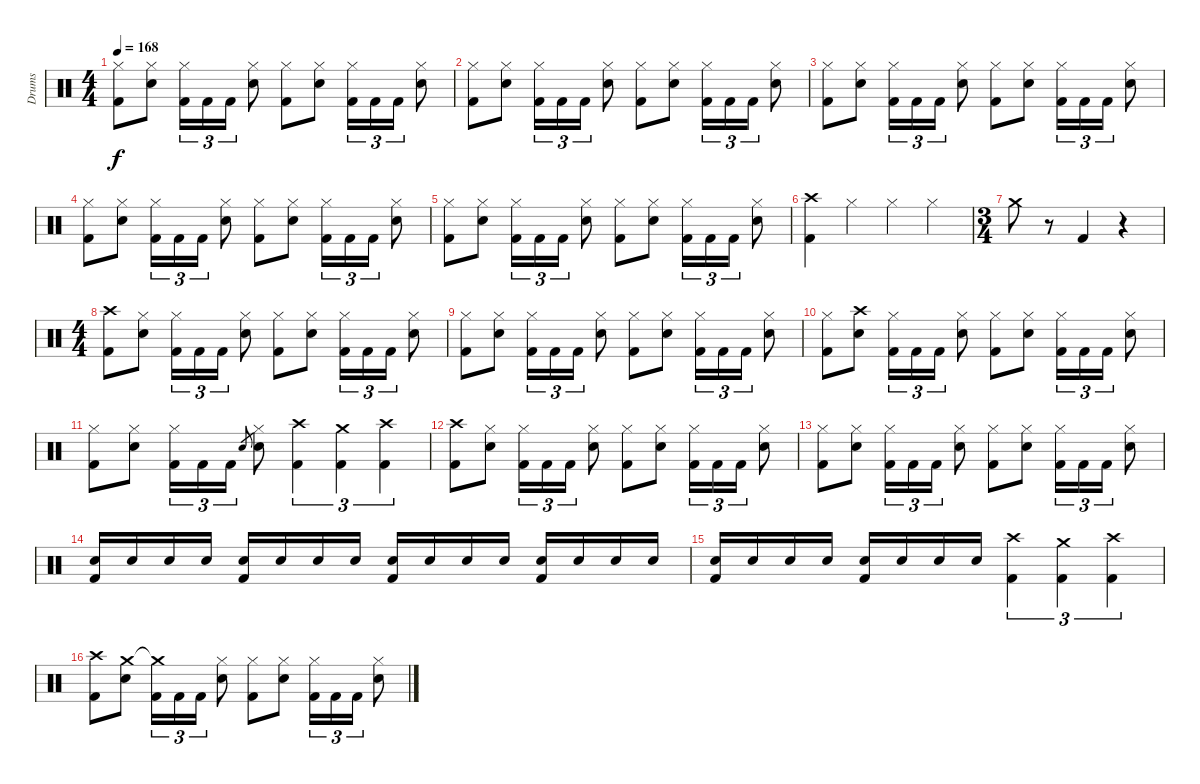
\track ("Drums" "Drums") {instrument percussion}
\staff {score}
\articulation defaults
\ts (4 4)
\tempo 168
\clef neutral
\ks c
("Hi-Hat (closed)" "Kick (hit) 2").8{dy f} ("Hi-Hat (closed)" "Snare (hit) 2").8 ("Hi-Hat (closed)" "Kick (hit) 2").16{tu (3 2)} "Kick (hit) 2".16{tu (3 2)} "Kick (hit) 2".16{tu (3 2)} ("Hi-Hat (closed)" "Snare (hit) 2").8 ("Hi-Hat (closed)" "Kick (hit) 2").8 ("Hi-Hat (closed)" "Snare (hit) 2").8 ("Hi-Hat (closed)" "Kick (hit) 2").16{tu (3 2)} "Kick (hit) 2".16{tu (3 2)} "Kick (hit) 2".16{tu (3 2)} ("Hi-Hat (closed)" "Snare (hit) 2").8 |
("Hi-Hat (closed)" "Kick (hit) 2").8 ("Hi-Hat (closed)" "Snare (hit) 2").8 ("Hi-Hat (closed)" "Kick (hit) 2").16{tu (3 2)} "Kick (hit) 2".16{tu (3 2)} "Kick (hit) 2".16{tu (3 2)} ("Hi-Hat (closed)" "Snare (hit) 2").8 ("Hi-Hat (closed)" "Kick (hit) 2").8 ("Hi-Hat (closed)" "Snare (hit) 2").8 ("Hi-Hat (closed)" "Kick (hit) 2").16{tu (3 2)} "Kick (hit) 2".16{tu (3 2)} "Kick (hit) 2".16{tu (3 2)} ("Hi-Hat (closed)" "Snare (hit) 2").8 |
("Hi-Hat (closed)" "Kick (hit) 2").8 ("Hi-Hat (closed)" "Snare (hit) 2").8 ("Hi-Hat (closed)" "Kick (hit) 2").16{tu (3 2)} "Kick (hit) 2".16{tu (3 2)} "Kick (hit) 2".16{tu (3 2)} ("Hi-Hat (closed)" "Snare (hit) 2").8 ("Hi-Hat (closed)" "Kick (hit) 2").8 ("Hi-Hat (closed)" "Snare (hit) 2").8 ("Hi-Hat (closed)" "Kick (hit) 2").16{tu (3 2)} "Kick (hit) 2".16{tu (3 2)} "Kick (hit) 2".16{tu (3 2)} ("Hi-Hat (closed)" "Snare (hit) 2").8 |
("Hi-Hat (closed)" "Kick (hit) 2").8 ("Hi-Hat (closed)" "Snare (hit) 2").8 ("Hi-Hat (closed)" "Kick (hit) 2").16{tu (3 2)} "Kick (hit) 2".16{tu (3 2)} "Kick (hit) 2".16{tu (3 2)} ("Hi-Hat (closed)" "Snare (hit) 2").8 ("Hi-Hat (closed)" "Kick (hit) 2").8 ("Hi-Hat (closed)" "Snare (hit) 2").8 ("Hi-Hat (closed)" "Kick (hit) 2").16{tu (3 2)} "Kick (hit) 2".16{tu (3 2)} "Kick (hit) 2".16{tu (3 2)} ("Hi-Hat (closed)" "Snare (hit) 2").8 |
("Hi-Hat (closed)" "Kick (hit) 2").8 ("Hi-Hat (closed)" "Snare (hit) 2").8 ("Hi-Hat (closed)" "Kick (hit) 2").16{tu (3 2)} "Kick (hit) 2".16{tu (3 2)} "Kick (hit) 2".16{tu (3 2)} ("Hi-Hat (closed)" "Snare (hit) 2").8 ("Hi-Hat (closed)" "Kick (hit) 2").8 ("Hi-Hat (closed)" "Snare (hit) 2").8 ("Hi-Hat (closed)" "Kick (hit) 2").16{tu (3 2)} "Kick (hit) 2".16{tu (3 2)} "Kick (hit) 2".16{tu (3 2)} ("Hi-Hat (closed)" "Snare (hit) 2").8 |
("Crash high (hit)" "Kick (hit) 2").4 "Hi-Hat (closed)".4 "Hi-Hat (closed)".4 "Hi-Hat (closed)".4 |
\ts (3 4)
"Crash medium (hit)".8 r.8 "Kick (hit) 2".4 r.4 |
\ts (4 4)
("Crash high (hit)" "Kick (hit) 2").8 ("Hi-Hat (closed)" "Snare (hit) 2").8 ("Hi-Hat (closed)" "Kick (hit) 2").16{tu (3 2)} "Kick (hit) 2".16{tu (3 2)} "Kick (hit) 2".16{tu (3 2)} ("Hi-Hat (closed)" "Snare (hit) 2").8 ("Hi-Hat (closed)" "Kick (hit) 2").8 ("Hi-Hat (closed)" "Snare (hit) 2").8 ("Hi-Hat (closed)" "Kick (hit) 2").16{tu (3 2)} "Kick (hit) 2".16{tu (3 2)} "Kick (hit) 2".16{tu (3 2)} ("Hi-Hat (closed)" "Snare (hit) 2").8 |
("Hi-Hat (closed)" "Kick (hit) 2").8 ("Hi-Hat (closed)" "Snare (hit) 2").8 ("Hi-Hat (closed)" "Kick (hit) 2").16{tu (3 2)} "Kick (hit) 2".16{tu (3 2)} "Kick (hit) 2".16{tu (3 2)} ("Hi-Hat (closed)" "Snare (hit) 2").8 ("Hi-Hat (closed)" "Kick (hit) 2").8 ("Hi-Hat (closed)" "Snare (hit) 2").8 ("Hi-Hat (closed)" "Kick (hit) 2").16{tu (3 2)} "Kick (hit) 2".16{tu (3 2)} "Kick (hit) 2".16{tu (3 2)} ("Hi-Hat (closed)" "Snare (hit) 2").8 |
("Hi-Hat (closed)" "Kick (hit) 2").8 ("Crash high (hit)" "Snare (hit) 2").8 ("Hi-Hat (closed)" "Kick (hit) 2").16{tu (3 2)} "Kick (hit) 2".16{tu (3 2)} "Kick (hit) 2".16{tu (3 2)} ("Hi-Hat (closed)" "Snare (hit) 2").8 ("Hi-Hat (closed)" "Kick (hit) 2").8 ("Hi-Hat (closed)" "Snare (hit) 2").8 ("Hi-Hat (closed)" "Kick (hit) 2").16{tu (3 2)} "Kick (hit) 2".16{tu (3 2)} "Kick (hit) 2".16{tu (3 2)} ("Hi-Hat (closed)" "Snare (hit) 2").8 |
("Hi-Hat (closed)" "Kick (hit) 2").8 ("Hi-Hat (closed)" "Snare (hit) 2").8 ("Hi-Hat (closed)" "Kick (hit) 2").16{tu (3 2)} "Kick (hit) 2".16{tu (3 2)} "Kick (hit) 2".16{tu (3 2)} "Snare (hit) 2".8{gr} ("Hi-Hat (closed)" "Snare (hit) 2").8 ("Crash high (hit)" "Kick (hit) 2").4{tu (3 2)} ("Crash medium (hit)" "Kick (hit) 2").4{tu (3 2)} ("Crash high (hit)" "Kick (hit) 2").4{tu (3 2)} |
("Crash high (hit)" "Kick (hit) 2").8 ("Hi-Hat (closed)" "Snare (hit) 2").8 ("Hi-Hat (closed)" "Kick (hit) 2").16{tu (3 2)} "Kick (hit) 2".16{tu (3 2)} "Kick (hit) 2".16{tu (3 2)} ("Hi-Hat (closed)" "Snare (hit) 2").8 ("Hi-Hat (closed)" "Kick (hit) 2").8 ("Hi-Hat (closed)" "Snare (hit) 2").8 ("Hi-Hat (closed)" "Kick (hit) 2").16{tu (3 2)} "Kick (hit) 2".16{tu (3 2)} "Kick (hit) 2".16{tu (3 2)} ("Hi-Hat (closed)" "Snare (hit) 2").8 |
("Hi-Hat (closed)" "Kick (hit) 2").8 ("Hi-Hat (closed)" "Snare (hit) 2").8 ("Hi-Hat (closed)" "Kick (hit) 2").16{tu (3 2)} "Kick (hit) 2".16{tu (3 2)} "Kick (hit) 2".16{tu (3 2)} ("Hi-Hat (closed)" "Snare (hit) 2").8 ("Hi-Hat (closed)" "Kick (hit) 2").8 ("Hi-Hat (closed)" "Snare (hit) 2").8 ("Hi-Hat (closed)" "Kick (hit) 2").16{tu (3 2)} "Kick (hit) 2".16{tu (3 2)} "Kick (hit) 2".16{tu (3 2)} ("Hi-Hat (closed)" "Snare (hit) 2").8 |
("Snare (hit) 2" "Kick (hit) 2").16 "Snare (hit) 2".16 "Snare (hit) 2".16 "Snare (hit) 2".16 ("Snare (hit) 2" "Kick (hit) 2").16 "Snare (hit) 2".16 "Snare (hit) 2".16 "Snare (hit) 2".16 ("Snare (hit) 2" "Kick (hit) 2").16 "Snare (hit) 2".16 "Snare (hit) 2".16 "Snare (hit) 2".16 ("Snare (hit) 2" "Kick (hit) 2").16 "Snare (hit) 2".16 "Snare (hit) 2".16 "Snare (hit) 2".16 |
("Snare (hit) 2" "Kick (hit) 2").16 "Snare (hit) 2".16 "Snare (hit) 2".16 "Snare (hit) 2".16 ("Snare (hit) 2" "Kick (hit) 2").16 "Snare (hit) 2".16 "Snare (hit) 2".16 "Snare (hit) 2".16 ("Crash high (hit)" "Kick (hit) 2").4{tu (3 2)} ("Crash medium (hit)" "Kick (hit) 2").4{tu (3 2)} ("Crash high (hit)" "Kick (hit) 2").4{tu (3 2)} |
("Crash high (hit)" "Kick (hit) 2").8 ("Crash medium (hit)" "Snare (hit) 2").8 ("Crash medium (hit)"{t} "Kick (hit) 2").16{tu (3 2)} "Kick (hit) 2".16{tu (3 2)} "Kick (hit) 2".16{tu (3 2)} ("Hi-Hat (closed)" "Snare (hit) 2").8 ("Hi-Hat (closed)" "Kick (hit) 2").8 ("Hi-Hat (closed)" "Snare (hit) 2").8 ("Hi-Hat (closed)" "Kick (hit) 2").16{tu (3 2)} "Kick (hit) 2".16{tu (3 2)} "Kick (hit) 2".16{tu (3 2)} ("Hi-Hat (closed)" "Snare (hit) 2").8
